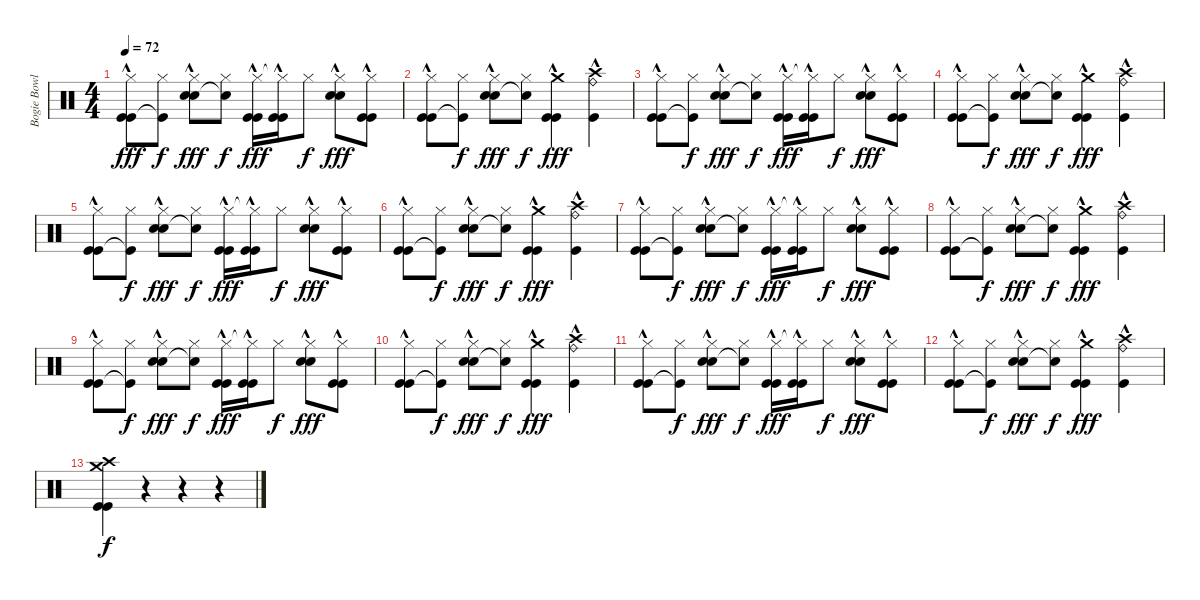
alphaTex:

\track ("Bogie Bowles" "Bogie Bowl") {instrument percussion}
\staff {score}
\articulation defaults
\ts (4 4)
\tempo 72
\clef neutral
\ks c
("Hi-Hat (closed)" "Kick (hit)"{hac} "Kick (hit)"{hac}).8{dy fff} ("Hi-Hat (closed)" "Kick (hit)"{t}).8{dy f} ("Hi-Hat (closed)" "Snare (hit) 2"{hac} "Snare (hit) 2"{hac}).8{dy fff} ("Hi-Hat (closed)" "Snare (hit) 2"{t}).8{dy f} ("Hi-Hat (closed)" "Kick (hit)"{hac} "Kick (hit)"{hac}).16{dy fff} ("Hi-Hat (closed)"{t} "Kick (hit)"{hac} "Kick (hit)"{hac}).16 "Hi-Hat (closed)".8{dy f} ("Hi-Hat (closed)" "Snare (hit) 2"{hac} "Snare (hit) 2"{hac}).8{dy fff} ("Hi-Hat (closed)" "Kick (hit)"{hac} "Kick (hit)"{hac}).8 |
("Hi-Hat (closed)" "Kick (hit)"{hac} "Kick (hit)"{hac}).8 ("Hi-Hat (closed)" "Kick (hit)"{t}).8{dy f} ("Hi-Hat (closed)" "Snare (hit) 2"{hac} "Snare (hit) 2"{hac}).8{dy fff} ("Hi-Hat (closed)" "Snare (hit) 2"{t}).8{dy f} ("Crash medium (hit)" "Kick (hit)"{hac} "Kick (hit)"{hac}).4{dy fff} ("Crash high (hit)" "Kick (hit)"{hac} "Ride (bell)"{hac}).4 |
("Hi-Hat (closed)" "Kick (hit)"{hac} "Kick (hit)"{hac}).8 ("Hi-Hat (closed)" "Kick (hit)"{t}).8{dy f} ("Hi-Hat (closed)" "Snare (hit) 2"{hac} "Snare (hit) 2"{hac}).8{dy fff} ("Hi-Hat (closed)" "Snare (hit) 2"{t}).8{dy f} ("Hi-Hat (closed)" "Kick (hit)"{hac} "Kick (hit)"{hac}).16{dy fff} ("Hi-Hat (closed)"{t} "Kick (hit)"{hac} "Kick (hit)"{hac}).16 "Hi-Hat (closed)".8{dy f} ("Hi-Hat (closed)" "Snare (hit) 2"{hac} "Snare (hit) 2"{hac}).8{dy fff} ("Hi-Hat (closed)" "Kick (hit)"{hac} "Kick (hit)"{hac}).8 |
("Hi-Hat (closed)" "Kick (hit)"{hac} "Kick (hit)"{hac}).8 ("Hi-Hat (closed)" "Kick (hit)"{t}).8{dy f} ("Hi-Hat (closed)" "Snare (hit) 2"{hac} "Snare (hit) 2"{hac}).8{dy fff} ("Hi-Hat (closed)" "Snare (hit) 2"{t}).8{dy f} ("Crash medium (hit)" "Kick (hit)"{hac} "Kick (hit)"{hac}).4{dy fff} ("Crash high (hit)" "Kick (hit)"{hac} "Ride (bell)"{hac}).4 |
("Hi-Hat (closed)" "Kick (hit)"{hac} "Kick (hit)"{hac}).8 ("Hi-Hat (closed)" "Kick (hit)"{t}).8{dy f} ("Hi-Hat (closed)" "Snare (hit) 2"{hac} "Snare (hit) 2"{hac}).8{dy fff} ("Hi-Hat (closed)" "Snare (hit) 2"{t}).8{dy f} ("Hi-Hat (closed)" "Kick (hit)"{hac} "Kick (hit)"{hac}).16{dy fff} ("Hi-Hat (closed)"{t} "Kick (hit)"{hac} "Kick (hit)"{hac}).16 "Hi-Hat (closed)".8{dy f} ("Hi-Hat (closed)" "Snare (hit) 2"{hac} "Snare (hit) 2"{hac}).8{dy fff} ("Hi-Hat (closed)" "Kick (hit)"{hac} "Kick (hit)"{hac}).8 |
("Hi-Hat (closed)" "Kick (hit)"{hac} "Kick (hit)"{hac}).8 ("Hi-Hat (closed)" "Kick (hit)"{t}).8{dy f} ("Hi-Hat (closed)" "Snare (hit) 2"{hac} "Snare (hit) 2"{hac}).8{dy fff} ("Hi-Hat (closed)" "Snare (hit) 2"{t}).8{dy f} ("Crash medium (hit)" "Kick (hit)"{hac} "Kick (hit)"{hac}).4{dy fff} ("Crash high (hit)" "Kick (hit)"{hac} "Ride (bell)"{hac}).4 |
("Hi-Hat (closed)" "Kick (hit)"{hac} "Kick (hit)"{hac}).8 ("Hi-Hat (closed)" "Kick (hit)"{t}).8{dy f} ("Hi-Hat (closed)" "Snare (hit) 2"{hac} "Snare (hit) 2"{hac}).8{dy fff} ("Hi-Hat (closed)" "Snare (hit) 2"{t}).8{dy f} ("Hi-Hat (closed)" "Kick (hit)"{hac} "Kick (hit)"{hac}).16{dy fff} ("Hi-Hat (closed)"{t} "Kick (hit)"{hac} "Kick (hit)"{hac}).16 "Hi-Hat (closed)".8{dy f} ("Hi-Hat (closed)" "Snare (hit) 2"{hac} "Snare (hit) 2"{hac}).8{dy fff} ("Hi-Hat (closed)" "Kick (hit)"{hac} "Kick (hit)"{hac}).8 |
("Hi-Hat (closed)" "Kick (hit)"{hac} "Kick (hit)"{hac}).8 ("Hi-Hat (closed)" "Kick (hit)"{t}).8{dy f} ("Hi-Hat (closed)" "Snare (hit) 2"{hac} "Snare (hit) 2"{hac}).8{dy fff} ("Hi-Hat (closed)" "Snare (hit) 2"{t}).8{dy f} ("Crash medium (hit)" "Kick (hit)"{hac} "Kick (hit)"{hac}).4{dy fff} ("Crash high (hit)" "Kick (hit)"{hac} "Ride (bell)"{hac}).4 |
("Hi-Hat (closed)" "Kick (hit)"{hac} "Kick (hit)"{hac}).8 ("Hi-Hat (closed)" "Kick (hit)"{t}).8{dy f} ("Hi-Hat (closed)" "Snare (hit) 2"{hac} "Snare (hit) 2"{hac}).8{dy fff} ("Hi-Hat (closed)" "Snare (hit) 2"{t}).8{dy f} ("Hi-Hat (closed)" "Kick (hit)"{hac} "Kick (hit)"{hac}).16{dy fff} ("Hi-Hat (closed)"{t} "Kick (hit)"{hac} "Kick (hit)"{hac}).16 "Hi-Hat (closed)".8{dy f} ("Hi-Hat (closed)" "Snare (hit) 2"{hac} "Snare (hit) 2"{hac}).8{dy fff} ("Hi-Hat (closed)" "Kick (hit)"{hac} "Kick (hit)"{hac}).8 |
("Hi-Hat (closed)" "Kick (hit)"{hac} "Kick (hit)"{hac}).8 ("Hi-Hat (closed)" "Kick (hit)"{t}).8{dy f} ("Hi-Hat (closed)" "Snare (hit) 2"{hac} "Snare (hit) 2"{hac}).8{dy fff} ("Hi-Hat (closed)" "Snare (hit) 2"{t}).8{dy f} ("Crash medium (hit)" "Kick (hit)"{hac} "Kick (hit)"{hac}).4{dy fff} ("Crash high (hit)" "Kick (hit)"{hac} "Ride (bell)"{hac}).4 |
("Hi-Hat (closed)" "Kick (hit)"{hac} "Kick (hit)"{hac}).8 ("Hi-Hat (closed)" "Kick (hit)"{t}).8{dy f} ("Hi-Hat (closed)" "Snare (hit) 2"{hac} "Snare (hit) 2"{hac}).8{dy fff} ("Hi-Hat (closed)" "Snare (hit) 2"{t}).8{dy f} ("Hi-Hat (closed)" "Kick (hit)"{hac} "Kick (hit)"{hac}).16{dy fff} ("Hi-Hat (closed)"{t} "Kick (hit)"{hac} "Kick (hit)"{hac}).16 "Hi-Hat (closed)".8{dy f} ("Hi-Hat (closed)" "Snare (hit) 2"{hac} "Snare (hit) 2"{hac}).8{dy fff} ("Hi-Hat (closed)" "Kick (hit)"{hac} "Kick (hit)"{hac}).8 |
("Hi-Hat (closed)" "Kick (hit)"{hac} "Kick (hit)"{hac}).8 ("Hi-Hat (closed)" "Kick (hit)"{t}).8{dy f} ("Hi-Hat (closed)" "Snare (hit) 2"{hac} "Snare (hit) 2"{hac}).8{dy fff} ("Hi-Hat (closed)" "Snare (hit) 2"{t}).8{dy f} ("Crash medium (hit)" "Kick (hit)"{hac} "Kick (hit)"{hac}).4{dy fff} ("Crash high (hit)" "Kick (hit)"{hac} "Ride (bell)"{hac}).4 |
("Crash medium (hit)" "Crash high (hit)" "Kick (hit)" "Kick (hit)").4{dy f} r.4 r.4 r.4
